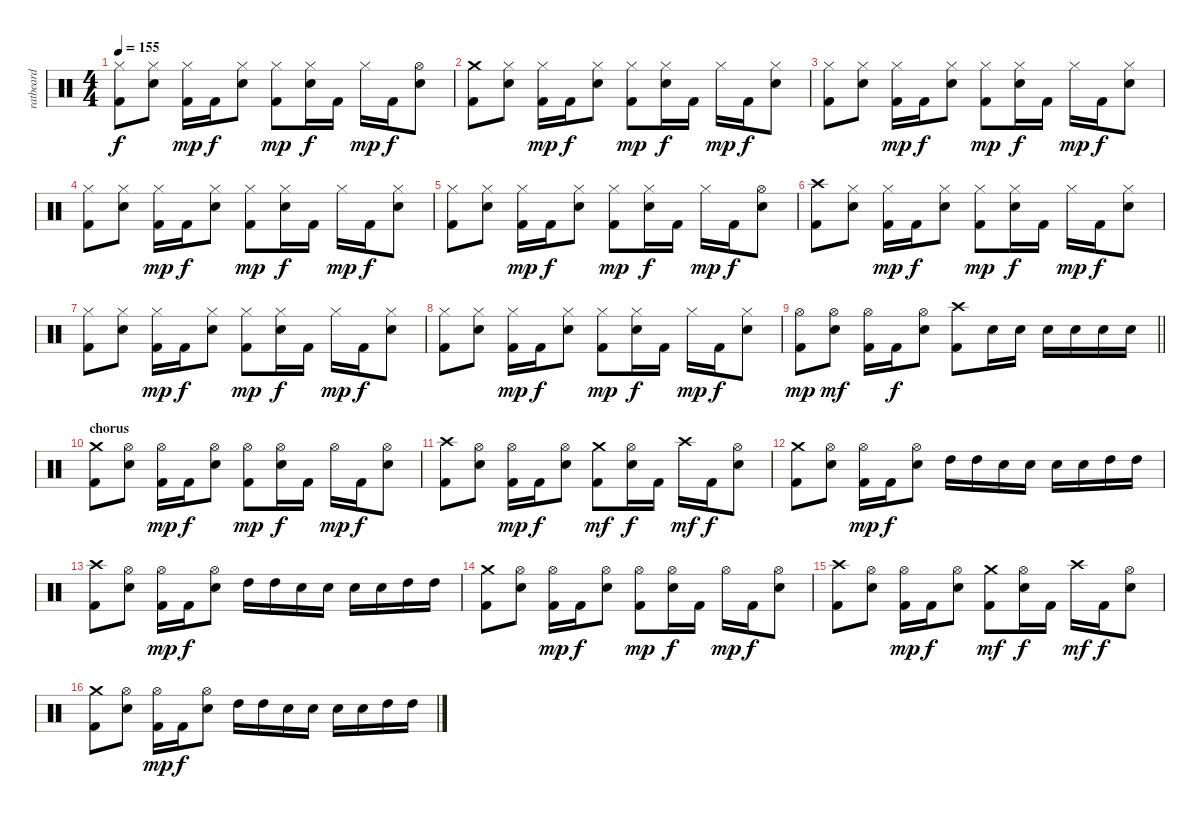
\track ("ratbeard" "ratbeard") {instrument percussion}
\staff {score}
\articulation defaults
\ts (4 4)
\tempo 155
\clef neutral
\ks c
("Hi-Hat (closed)" "Kick (hit) 2").8{dy f} ("Hi-Hat (closed)" "Electric Snare (hit)").8 ("Hi-Hat (closed)" "Kick (hit) 2").16{dy mp} "Kick (hit) 2".16{dy f} ("Hi-Hat (closed)" "Electric Snare (hit)").8 ("Hi-Hat (closed)" "Kick (hit) 2").8{dy mp} ("Hi-Hat (closed)" "Electric Snare (hit)").16{dy f} "Kick (hit) 2".16 "Hi-Hat (closed)".16{dy mp} "Kick (hit) 2".16{dy f} ("Hi-Hat (open)" "Electric Snare (hit)").8 |
("Crash medium (hit)" "Kick (hit) 2").8 ("Hi-Hat (closed)" "Electric Snare (hit)").8 ("Hi-Hat (closed)" "Kick (hit) 2").16{dy mp} "Kick (hit) 2".16{dy f} ("Hi-Hat (closed)" "Electric Snare (hit)").8 ("Hi-Hat (closed)" "Kick (hit) 2").8{dy mp} ("Hi-Hat (closed)" "Electric Snare (hit)").16{dy f} "Kick (hit) 2".16 "Hi-Hat (closed)".16{dy mp} "Kick (hit) 2".16{dy f} ("Hi-Hat (closed)" "Electric Snare (hit)").8 |
("Hi-Hat (closed)" "Kick (hit) 2").8 ("Hi-Hat (closed)" "Electric Snare (hit)").8 ("Hi-Hat (closed)" "Kick (hit) 2").16{dy mp} "Kick (hit) 2".16{dy f} ("Hi-Hat (closed)" "Electric Snare (hit)").8 ("Hi-Hat (closed)" "Kick (hit) 2").8{dy mp} ("Hi-Hat (closed)" "Electric Snare (hit)").16{dy f} "Kick (hit) 2".16 "Hi-Hat (closed)".16{dy mp} "Kick (hit) 2".16{dy f} ("Hi-Hat (closed)" "Electric Snare (hit)").8 |
("Hi-Hat (closed)" "Kick (hit) 2").8 ("Hi-Hat (closed)" "Electric Snare (hit)").8 ("Hi-Hat (closed)" "Kick (hit) 2").16{dy mp} "Kick (hit) 2".16{dy f} ("Hi-Hat (closed)" "Electric Snare (hit)").8 ("Hi-Hat (closed)" "Kick (hit) 2").8{dy mp} ("Hi-Hat (closed)" "Electric Snare (hit)").16{dy f} "Kick (hit) 2".16 "Hi-Hat (closed)".16{dy mp} "Kick (hit) 2".16{dy f} ("Hi-Hat (closed)" "Electric Snare (hit)").8 |
("Hi-Hat (closed)" "Kick (hit) 2").8 ("Hi-Hat (closed)" "Electric Snare (hit)").8 ("Hi-Hat (closed)" "Kick (hit) 2").16{dy mp} "Kick (hit) 2".16{dy f} ("Hi-Hat (closed)" "Electric Snare (hit)").8 ("Hi-Hat (closed)" "Kick (hit) 2").8{dy mp} ("Hi-Hat (closed)" "Electric Snare (hit)").16{dy f} "Kick (hit) 2".16 "Hi-Hat (closed)".16{dy mp} "Kick (hit) 2".16{dy f} ("Hi-Hat (open)" "Electric Snare (hit)").8 |
("Crash high (hit)" "Kick (hit) 2").8 ("Hi-Hat (closed)" "Electric Snare (hit)").8 ("Hi-Hat (closed)" "Kick (hit) 2").16{dy mp} "Kick (hit) 2".16{dy f} ("Hi-Hat (closed)" "Electric Snare (hit)").8 ("Hi-Hat (closed)" "Kick (hit) 2").8{dy mp} ("Hi-Hat (closed)" "Electric Snare (hit)").16{dy f} "Kick (hit) 2".16 "Hi-Hat (closed)".16{dy mp} "Kick (hit) 2".16{dy f} ("Hi-Hat (closed)" "Electric Snare (hit)").8 |
("Hi-Hat (closed)" "Kick (hit) 2").8 ("Hi-Hat (closed)" "Electric Snare (hit)").8 ("Hi-Hat (closed)" "Kick (hit) 2").16{dy mp} "Kick (hit) 2".16{dy f} ("Hi-Hat (closed)" "Electric Snare (hit)").8 ("Hi-Hat (closed)" "Kick (hit) 2").8{dy mp} ("Hi-Hat (closed)" "Electric Snare (hit)").16{dy f} "Kick (hit) 2".16 "Hi-Hat (closed)".16{dy mp} "Kick (hit) 2".16{dy f} ("Hi-Hat (closed)" "Electric Snare (hit)").8 |
("Hi-Hat (closed)" "Kick (hit) 2").8 ("Hi-Hat (closed)" "Electric Snare (hit)").8 ("Hi-Hat (closed)" "Kick (hit) 2").16{dy mp} "Kick (hit) 2".16{dy f} ("Hi-Hat (closed)" "Electric Snare (hit)").8 ("Hi-Hat (closed)" "Kick (hit) 2").8{dy mp} ("Hi-Hat (closed)" "Electric Snare (hit)").16{dy f} "Kick (hit) 2".16 "Hi-Hat (closed)".16{dy mp} "Kick (hit) 2".16{dy f} ("Hi-Hat (closed)" "Electric Snare (hit)").8 |
\barLineRight lightlight
("Hi-Hat (open)" "Kick (hit) 2").8{dy mp} ("Hi-Hat (open)" "Electric Snare (hit)").8{dy mf} ("Hi-Hat (open)" "Kick (hit) 2").16 "Kick (hit) 2".16{dy f} ("Hi-Hat (open)" "Electric Snare (hit)").8 ("Crash high (hit)" "Kick (hit) 2").8 "Electric Snare (hit)".16 "Electric Snare (hit)".16 "Electric Snare (hit)".16 "Electric Snare (hit)".16 "Electric Snare (hit)".16 "Electric Snare (hit)".16 |
\section ("" "chorus")
("Crash medium (hit)" "Kick (hit) 2").8 ("Hi-Hat (open)" "Electric Snare (hit)").8 ("Hi-Hat (open)" "Kick (hit) 2").16{dy mp} "Kick (hit) 2".16{dy f} ("Hi-Hat (open)" "Electric Snare (hit)").8 ("Hi-Hat (open)" "Kick (hit) 2").8{dy mp} ("Hi-Hat (open)" "Electric Snare (hit)").16{dy f} "Kick (hit) 2".16 "Hi-Hat (open)".16{dy mp} "Kick (hit) 2".16{dy f} ("Hi-Hat (open)" "Electric Snare (hit)").8 |
("Crash high (hit)" "Kick (hit) 2").8 ("Hi-Hat (open)" "Electric Snare (hit)").8 ("Hi-Hat (open)" "Kick (hit) 2").16{dy mp} "Kick (hit) 2".16{dy f} ("Hi-Hat (open)" "Electric Snare (hit)").8 ("Crash medium (hit)" "Kick (hit) 2").8{dy mf} ("Hi-Hat (open)" "Electric Snare (hit)").16{dy f} "Kick (hit) 2".16 "Crash high (hit)".16{dy mf} "Kick (hit) 2".16{dy f} ("Hi-Hat (open)" "Electric Snare (hit)").8 |
("Crash medium (hit)" "Kick (hit) 2").8 ("Hi-Hat (open)" "Electric Snare (hit)").8 ("Hi-Hat (open)" "Kick (hit) 2").16{dy mp} "Kick (hit) 2".16{dy f} ("Hi-Hat (open)" "Electric Snare (hit)").8 "High Tom (hit)".16 "High Tom (hit)".16 "Electric Snare (hit)".16 "Electric Snare (hit)".16 "Electric Snare (hit)".16 "Electric Snare (hit)".16 "High Tom (hit)".16 "High Tom (hit)".16 |
("Crash high (hit)" "Kick (hit) 2").8 ("Hi-Hat (open)" "Electric Snare (hit)").8 ("Hi-Hat (open)" "Kick (hit) 2").16{dy mp} "Kick (hit) 2".16{dy f} ("Hi-Hat (open)" "Electric Snare (hit)").8 "High Tom (hit)".16 "High Tom (hit)".16 "Electric Snare (hit)".16 "Electric Snare (hit)".16 "Electric Snare (hit)".16 "Electric Snare (hit)".16 "High Tom (hit)".16 "High Tom (hit)".16 |
("Crash medium (hit)" "Kick (hit) 2").8 ("Hi-Hat (open)" "Electric Snare (hit)").8 ("Hi-Hat (open)" "Kick (hit) 2").16{dy mp} "Kick (hit) 2".16{dy f} ("Hi-Hat (open)" "Electric Snare (hit)").8 ("Hi-Hat (open)" "Kick (hit) 2").8{dy mp} ("Hi-Hat (open)" "Electric Snare (hit)").16{dy f} "Kick (hit) 2".16 "Hi-Hat (open)".16{dy mp} "Kick (hit) 2".16{dy f} ("Hi-Hat (open)" "Electric Snare (hit)").8 |
("Crash high (hit)" "Kick (hit) 2").8 ("Hi-Hat (open)" "Electric Snare (hit)").8 ("Hi-Hat (open)" "Kick (hit) 2").16{dy mp} "Kick (hit) 2".16{dy f} ("Hi-Hat (open)" "Electric Snare (hit)").8 ("Crash medium (hit)" "Kick (hit) 2").8{dy mf} ("Hi-Hat (open)" "Electric Snare (hit)").16{dy f} "Kick (hit) 2".16 "Crash high (hit)".16{dy mf} "Kick (hit) 2".16{dy f} ("Hi-Hat (open)" "Electric Snare (hit)").8 |
("Crash medium (hit)" "Kick (hit) 2").8 ("Hi-Hat (open)" "Electric Snare (hit)").8 ("Hi-Hat (open)" "Kick (hit) 2").16{dy mp} "Kick (hit) 2".16{dy f} ("Hi-Hat (open)" "Electric Snare (hit)").8 "High Tom (hit)".16 "High Tom (hit)".16 "Electric Snare (hit)".16 "Electric Snare (hit)".16 "Electric Snare (hit)".16 "Electric Snare (hit)".16 "High Tom (hit)".16 "High Tom (hit)".16
